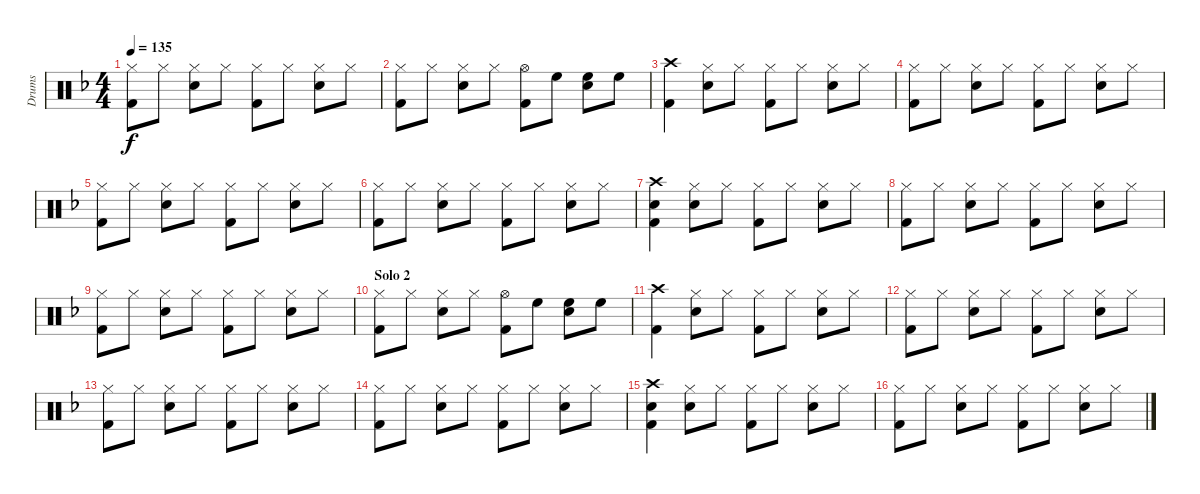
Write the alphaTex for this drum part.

\track ("Drums" "Drums") {instrument percussion}
\staff {score}
\articulation defaults
\ts (4 4)
\tempo 135
\clef neutral
\ks f
("Hi-Hat (closed)" "Kick (hit) 2").8{dy f} "Hi-Hat (closed)".8 ("Hi-Hat (closed)" "Snare (hit) 2").8 "Hi-Hat (closed)".8 ("Hi-Hat (closed)" "Kick (hit) 2").8 "Hi-Hat (closed)".8 ("Hi-Hat (closed)" "Snare (hit) 2").8 "Hi-Hat (closed)".8 |
("Hi-Hat (closed)" "Kick (hit) 2").8 "Hi-Hat (closed)".8 ("Hi-Hat (closed)" "Snare (hit) 2").8 "Hi-Hat (closed)".8 ("Hi-Hat (open)" "Kick (hit) 2").8 "High Floor Tom (hit)".8 ("High Floor Tom (hit)" "Snare (hit) 2").8 "High Floor Tom (hit)".8 |
("Crash high (hit)" "Kick (hit) 2").4 ("Hi-Hat (closed)" "Snare (hit) 2").8 "Hi-Hat (closed)".8 ("Hi-Hat (closed)" "Kick (hit) 2").8 "Hi-Hat (closed)".8 ("Hi-Hat (closed)" "Snare (hit) 2").8 "Hi-Hat (closed)".8 |
("Hi-Hat (closed)" "Kick (hit) 2").8 "Hi-Hat (closed)".8 ("Hi-Hat (closed)" "Snare (hit) 2").8 "Hi-Hat (closed)".8 ("Hi-Hat (closed)" "Kick (hit) 2").8 "Hi-Hat (closed)".8 ("Hi-Hat (closed)" "Snare (hit) 2").8 "Hi-Hat (closed)".8 |
("Hi-Hat (closed)" "Kick (hit) 2").8 "Hi-Hat (closed)".8 ("Hi-Hat (closed)" "Snare (hit) 2").8 "Hi-Hat (closed)".8 ("Hi-Hat (closed)" "Kick (hit) 2").8 "Hi-Hat (closed)".8 ("Hi-Hat (closed)" "Snare (hit) 2").8 "Hi-Hat (closed)".8 |
("Hi-Hat (closed)" "Kick (hit) 2").8 "Hi-Hat (closed)".8 ("Hi-Hat (closed)" "Snare (hit) 2").8 "Hi-Hat (closed)".8 ("Hi-Hat (closed)" "Kick (hit) 2").8 "Hi-Hat (closed)".8 ("Hi-Hat (closed)" "Snare (hit) 2").8 "Hi-Hat (closed)".8 |
("Crash high (hit)" "Snare (hit) 2" "Kick (hit) 2").4 ("Hi-Hat (closed)" "Snare (hit) 2").8 "Hi-Hat (closed)".8 ("Hi-Hat (closed)" "Kick (hit) 2").8 "Hi-Hat (closed)".8 ("Hi-Hat (closed)" "Snare (hit) 2").8 "Hi-Hat (closed)".8 |
("Hi-Hat (closed)" "Kick (hit) 2").8 "Hi-Hat (closed)".8 ("Hi-Hat (closed)" "Snare (hit) 2").8 "Hi-Hat (closed)".8 ("Hi-Hat (closed)" "Kick (hit) 2").8 "Hi-Hat (closed)".8 ("Hi-Hat (closed)" "Snare (hit) 2").8 "Hi-Hat (closed)".8 |
("Hi-Hat (closed)" "Kick (hit) 2").8 "Hi-Hat (closed)".8 ("Hi-Hat (closed)" "Snare (hit) 2").8 "Hi-Hat (closed)".8 ("Hi-Hat (closed)" "Kick (hit) 2").8 "Hi-Hat (closed)".8 ("Hi-Hat (closed)" "Snare (hit) 2").8 "Hi-Hat (closed)".8 |
\section ("" "Solo 2")
("Hi-Hat (closed)" "Kick (hit) 2").8 "Hi-Hat (closed)".8 ("Hi-Hat (closed)" "Snare (hit) 2").8 "Hi-Hat (closed)".8 ("Hi-Hat (open)" "Kick (hit) 2").8 "High Floor Tom (hit)".8 ("High Floor Tom (hit)" "Snare (hit) 2").8 "High Floor Tom (hit)".8 |
("Crash high (hit)" "Kick (hit) 2").4 ("Hi-Hat (closed)" "Snare (hit) 2").8 "Hi-Hat (closed)".8 ("Hi-Hat (closed)" "Kick (hit) 2").8 "Hi-Hat (closed)".8 ("Hi-Hat (closed)" "Snare (hit) 2").8 "Hi-Hat (closed)".8 |
("Hi-Hat (closed)" "Kick (hit) 2").8 "Hi-Hat (closed)".8 ("Hi-Hat (closed)" "Snare (hit) 2").8 "Hi-Hat (closed)".8 ("Hi-Hat (closed)" "Kick (hit) 2").8 "Hi-Hat (closed)".8 ("Hi-Hat (closed)" "Snare (hit) 2").8 "Hi-Hat (closed)".8 |
("Hi-Hat (closed)" "Kick (hit) 2").8 "Hi-Hat (closed)".8 ("Hi-Hat (closed)" "Snare (hit) 2").8 "Hi-Hat (closed)".8 ("Hi-Hat (closed)" "Kick (hit) 2").8 "Hi-Hat (closed)".8 ("Hi-Hat (closed)" "Snare (hit) 2").8 "Hi-Hat (closed)".8 |
("Hi-Hat (closed)" "Kick (hit) 2").8 "Hi-Hat (closed)".8 ("Hi-Hat (closed)" "Snare (hit) 2").8 "Hi-Hat (closed)".8 ("Hi-Hat (closed)" "Kick (hit) 2").8 "Hi-Hat (closed)".8 ("Hi-Hat (closed)" "Snare (hit) 2").8 "Hi-Hat (closed)".8 |
("Crash high (hit)" "Snare (hit) 2" "Kick (hit) 2").4 ("Hi-Hat (closed)" "Snare (hit) 2").8 "Hi-Hat (closed)".8 ("Hi-Hat (closed)" "Kick (hit) 2").8 "Hi-Hat (closed)".8 ("Hi-Hat (closed)" "Snare (hit) 2").8 "Hi-Hat (closed)".8 |
("Hi-Hat (closed)" "Kick (hit) 2").8 "Hi-Hat (closed)".8 ("Hi-Hat (closed)" "Snare (hit) 2").8 "Hi-Hat (closed)".8 ("Hi-Hat (closed)" "Kick (hit) 2").8 "Hi-Hat (closed)".8 ("Hi-Hat (closed)" "Snare (hit) 2").8 "Hi-Hat (closed)".8
